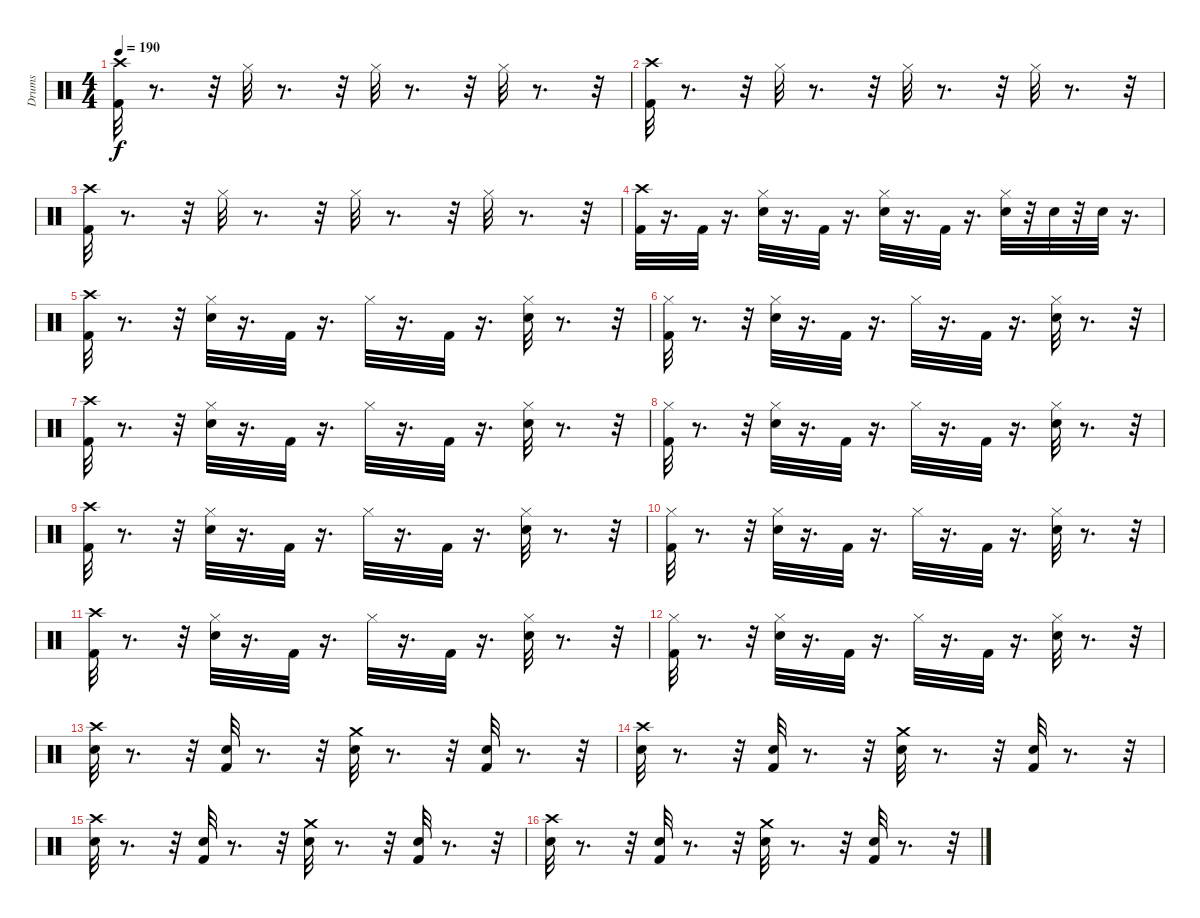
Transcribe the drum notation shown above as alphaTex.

\track ("Drums" "Drums") {instrument percussion}
\staff {score}
\articulation defaults
\ts (4 4)
\tempo 190
\clef neutral
\ks c
("Kick (hit) 2" "Crash high (hit)").32{dy f} r.8{d} r.32 "Hi-Hat (closed)".32 r.8{d} r.32 "Hi-Hat (closed)".32 r.8{d} r.32 "Hi-Hat (closed)".32 r.8{d} r.32 |
("Kick (hit) 2" "Crash high (hit)").32 r.8{d} r.32 "Hi-Hat (closed)".32 r.8{d} r.32 "Hi-Hat (closed)".32 r.8{d} r.32 "Hi-Hat (closed)".32 r.8{d} r.32 |
("Crash high (hit)" "Kick (hit) 2").32 r.8{d} r.32 "Hi-Hat (closed)".32 r.8{d} r.32 "Hi-Hat (closed)".32 r.8{d} r.32 "Hi-Hat (closed)".32 r.8{d} r.32 |
("Crash high (hit)" "Kick (hit) 2").32 r.16{d} "Kick (hit) 2".32 r.16{d} ("Hi-Hat (closed)" "Snare (hit) 2").32 r.16{d} "Kick (hit) 2".32 r.16{d} ("Snare (hit) 2" "Hi-Hat (closed)").32 r.16{d} "Kick (hit) 2".32 r.16{d} ("Hi-Hat (closed)" "Snare (hit) 2").32 r.32 "Snare (hit) 2".32 r.32 "Snare (hit) 2".32 r.16{d} |
("Kick (hit) 2" "Crash high (hit)").32 r.8{d} r.32 ("Hi-Hat (closed)" "Snare (hit) 2").32 r.16{d} "Kick (hit) 2".32 r.16{d} "Hi-Hat (closed)".32 r.16{d} "Kick (hit) 2".32 r.16{d} ("Hi-Hat (closed)" "Snare (hit) 2").32 r.8{d} r.32 |
("Hi-Hat (closed)" "Kick (hit) 2").32 r.8{d} r.32 ("Snare (hit) 2" "Hi-Hat (closed)").32 r.16{d} "Kick (hit) 2".32 r.16{d} "Hi-Hat (closed)".32 r.16{d} "Kick (hit) 2".32 r.16{d} ("Snare (hit) 2" "Hi-Hat (closed)").32 r.8{d} r.32 |
("Kick (hit) 2" "Crash high (hit)").32 r.8{d} r.32 ("Hi-Hat (closed)" "Snare (hit) 2").32 r.16{d} "Kick (hit) 2".32 r.16{d} "Hi-Hat (closed)".32 r.16{d} "Kick (hit) 2".32 r.16{d} ("Hi-Hat (closed)" "Snare (hit) 2").32 r.8{d} r.32 |
("Hi-Hat (closed)" "Kick (hit) 2").32 r.8{d} r.32 ("Snare (hit) 2" "Hi-Hat (closed)").32 r.16{d} "Kick (hit) 2".32 r.16{d} "Hi-Hat (closed)".32 r.16{d} "Kick (hit) 2".32 r.16{d} ("Snare (hit) 2" "Hi-Hat (closed)").32 r.8{d} r.32 |
("Kick (hit) 2" "Crash high (hit)").32 r.8{d} r.32 ("Hi-Hat (closed)" "Snare (hit) 2").32 r.16{d} "Kick (hit) 2".32 r.16{d} "Hi-Hat (closed)".32 r.16{d} "Kick (hit) 2".32 r.16{d} ("Hi-Hat (closed)" "Snare (hit) 2").32 r.8{d} r.32 |
("Hi-Hat (closed)" "Kick (hit) 2").32 r.8{d} r.32 ("Snare (hit) 2" "Hi-Hat (closed)").32 r.16{d} "Kick (hit) 2".32 r.16{d} "Hi-Hat (closed)".32 r.16{d} "Kick (hit) 2".32 r.16{d} ("Snare (hit) 2" "Hi-Hat (closed)").32 r.8{d} r.32 |
("Kick (hit) 2" "Crash high (hit)").32 r.8{d} r.32 ("Hi-Hat (closed)" "Snare (hit) 2").32 r.16{d} "Kick (hit) 2".32 r.16{d} "Hi-Hat (closed)".32 r.16{d} "Kick (hit) 2".32 r.16{d} ("Hi-Hat (closed)" "Snare (hit) 2").32 r.8{d} r.32 |
("Hi-Hat (closed)" "Kick (hit) 2").32 r.8{d} r.32 ("Snare (hit) 2" "Hi-Hat (closed)").32 r.16{d} "Kick (hit) 2".32 r.16{d} "Hi-Hat (closed)".32 r.16{d} "Kick (hit) 2".32 r.16{d} ("Snare (hit) 2" "Hi-Hat (closed)").32 r.8{d} r.32 |
("Crash high (hit)" "Snare (hit) 2").32 r.8{d} r.32 ("Hand Clap (hit)" "Kick (hit) 2").32 r.8{d} r.32 ("Crash medium (hit)" "Snare (hit) 2").32 r.8{d} r.32 ("Hand Clap (hit)" "Kick (hit) 2").32 r.8{d} r.32 |
("Snare (hit) 2" "Crash high (hit)").32 r.8{d} r.32 ("Hand Clap (hit)" "Kick (hit) 2").32 r.8{d} r.32 ("Crash medium (hit)" "Snare (hit) 2").32 r.8{d} r.32 ("Hand Clap (hit)" "Kick (hit) 2").32 r.8{d} r.32 |
("Crash high (hit)" "Snare (hit) 2").32 r.8{d} r.32 ("Hand Clap (hit)" "Kick (hit) 2").32 r.8{d} r.32 ("Crash medium (hit)" "Snare (hit) 2").32 r.8{d} r.32 ("Hand Clap (hit)" "Kick (hit) 2").32 r.8{d} r.32 |
("Snare (hit) 2" "Crash high (hit)").32 r.8{d} r.32 ("Hand Clap (hit)" "Kick (hit) 2").32 r.8{d} r.32 ("Crash medium (hit)" "Snare (hit) 2").32 r.8{d} r.32 ("Hand Clap (hit)" "Kick (hit) 2").32 r.8{d} r.32
